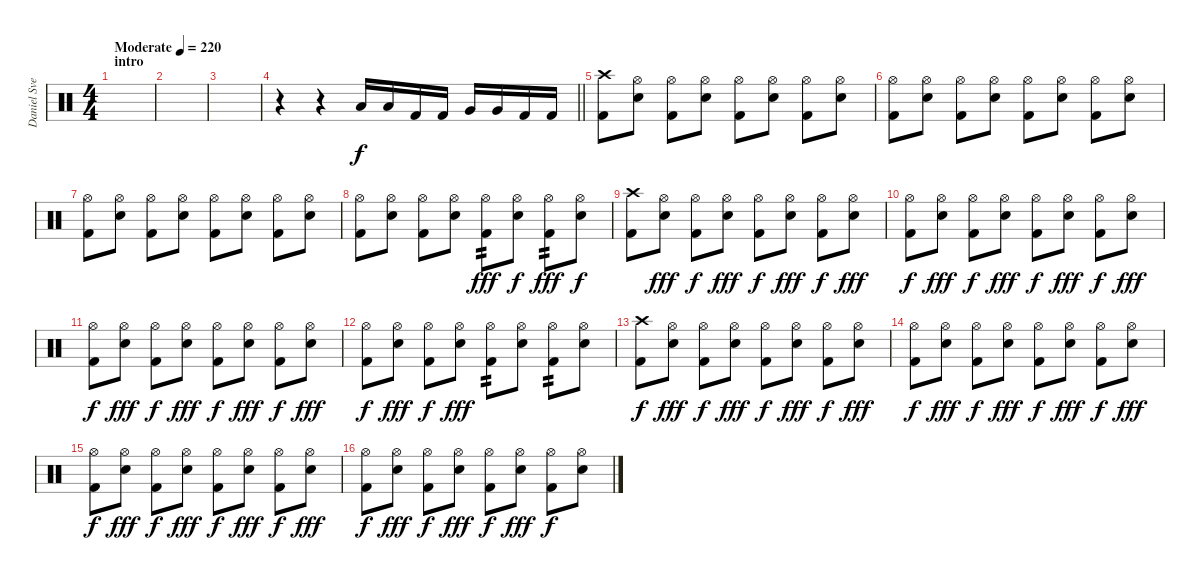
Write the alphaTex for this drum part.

\track ("Daniel Svensson" "Daniel Sve") {instrument percussion}
\staff {score}
\articulation defaults
\ts (4 4)
\section ("" "intro")
\tempo (220 "Moderate")
\clef neutral
\ks c
|
|
|
\barLineRight lightlight
r.4 r.4 "Low Tom (hit)".16 "Low Tom (hit)".16 "Kick (hit) 2".16 "Kick (hit) 2".16 "Very Low Tom (hit)".16 "Very Low Tom (hit)".16 "Kick (hit) 2".16 "Kick (hit) 2".16 |
\section ("" "")
("Crash high (hit)" "Kick (hit) 2").8 ("Hi-Hat (open)" "Electric Snare (hit)").8 ("Hi-Hat (open)" "Kick (hit) 2").8 ("Hi-Hat (open)" "Electric Snare (hit)").8 ("Hi-Hat (open)" "Kick (hit) 2").8 ("Hi-Hat (open)" "Electric Snare (hit)").8 ("Hi-Hat (open)" "Kick (hit) 2").8 ("Hi-Hat (open)" "Electric Snare (hit)").8 |
("Hi-Hat (open)" "Kick (hit) 2").8 ("Hi-Hat (open)" "Electric Snare (hit)").8 ("Hi-Hat (open)" "Kick (hit) 2").8 ("Hi-Hat (open)" "Electric Snare (hit)").8 ("Hi-Hat (open)" "Kick (hit) 2").8 ("Hi-Hat (open)" "Electric Snare (hit)").8 ("Hi-Hat (open)" "Kick (hit) 2").8 ("Hi-Hat (open)" "Electric Snare (hit)").8 |
("Hi-Hat (open)" "Kick (hit) 2").8 ("Hi-Hat (open)" "Electric Snare (hit)").8 ("Hi-Hat (open)" "Kick (hit) 2").8 ("Hi-Hat (open)" "Electric Snare (hit)").8 ("Hi-Hat (open)" "Kick (hit) 2").8 ("Hi-Hat (open)" "Electric Snare (hit)").8 ("Hi-Hat (open)" "Kick (hit) 2").8 ("Hi-Hat (open)" "Electric Snare (hit)").8 |
("Hi-Hat (open)" "Kick (hit) 2").8 ("Hi-Hat (open)" "Electric Snare (hit)").8 ("Hi-Hat (open)" "Kick (hit) 2").8 ("Hi-Hat (open)" "Electric Snare (hit)").8 ("Hi-Hat (open)" "Kick (hit) 2").8{tp 2 dy fff} ("Hi-Hat (open)" "Electric Snare (hit)").8{dy f} ("Hi-Hat (open)" "Kick (hit) 2").8{tp 2 dy fff} ("Hi-Hat (open)" "Electric Snare (hit)").8{dy f} |
("Crash high (hit)" "Kick (hit) 2").8 ("Hi-Hat (open)" "Electric Snare (hit)").8{dy fff} ("Hi-Hat (open)" "Kick (hit) 2").8{dy f} ("Hi-Hat (open)" "Electric Snare (hit)").8{dy fff} ("Hi-Hat (open)" "Kick (hit) 2").8{dy f} ("Hi-Hat (open)" "Electric Snare (hit)").8{dy fff} ("Hi-Hat (open)" "Kick (hit) 2").8{dy f} ("Hi-Hat (open)" "Electric Snare (hit)").8{dy fff} |
("Hi-Hat (open)" "Kick (hit) 2").8{dy f} ("Hi-Hat (open)" "Electric Snare (hit)").8{dy fff} ("Hi-Hat (open)" "Kick (hit) 2").8{dy f} ("Hi-Hat (open)" "Electric Snare (hit)").8{dy fff} ("Hi-Hat (open)" "Kick (hit) 2").8{dy f} ("Hi-Hat (open)" "Electric Snare (hit)").8{dy fff} ("Hi-Hat (open)" "Kick (hit) 2").8{dy f} ("Hi-Hat (open)" "Electric Snare (hit)").8{dy fff} |
("Hi-Hat (open)" "Kick (hit) 2").8{dy f} ("Hi-Hat (open)" "Electric Snare (hit)").8{dy fff} ("Hi-Hat (open)" "Kick (hit) 2").8{dy f} ("Hi-Hat (open)" "Electric Snare (hit)").8{dy fff} ("Hi-Hat (open)" "Kick (hit) 2").8{dy f} ("Hi-Hat (open)" "Electric Snare (hit)").8{dy fff} ("Hi-Hat (open)" "Kick (hit) 2").8{dy f} ("Hi-Hat (open)" "Electric Snare (hit)").8{dy fff} |
("Hi-Hat (open)" "Kick (hit) 2").8{dy f} ("Hi-Hat (open)" "Electric Snare (hit)").8{dy fff} ("Hi-Hat (open)" "Kick (hit) 2").8{dy f} ("Hi-Hat (open)" "Electric Snare (hit)").8{dy fff} ("Hi-Hat (open)" "Kick (hit) 2").8{tp 2} ("Hi-Hat (open)" "Electric Snare (hit)").8 ("Hi-Hat (open)" "Kick (hit) 2").8{tp 2} ("Hi-Hat (open)" "Electric Snare (hit)").8 |
("Crash high (hit)" "Kick (hit) 2").8{dy f} ("Hi-Hat (open)" "Electric Snare (hit)").8{dy fff} ("Hi-Hat (open)" "Kick (hit) 2").8{dy f} ("Hi-Hat (open)" "Electric Snare (hit)").8{dy fff} ("Hi-Hat (open)" "Kick (hit) 2").8{dy f} ("Hi-Hat (open)" "Electric Snare (hit)").8{dy fff} ("Hi-Hat (open)" "Kick (hit) 2").8{dy f} ("Hi-Hat (open)" "Electric Snare (hit)").8{dy fff} |
("Hi-Hat (open)" "Kick (hit) 2").8{dy f} ("Hi-Hat (open)" "Electric Snare (hit)").8{dy fff} ("Hi-Hat (open)" "Kick (hit) 2").8{dy f} ("Hi-Hat (open)" "Electric Snare (hit)").8{dy fff} ("Hi-Hat (open)" "Kick (hit) 2").8{dy f} ("Hi-Hat (open)" "Electric Snare (hit)").8{dy fff} ("Hi-Hat (open)" "Kick (hit) 2").8{dy f} ("Hi-Hat (open)" "Electric Snare (hit)").8{dy fff} |
("Hi-Hat (open)" "Kick (hit) 2").8{dy f} ("Hi-Hat (open)" "Electric Snare (hit)").8{dy fff} ("Hi-Hat (open)" "Kick (hit) 2").8{dy f} ("Hi-Hat (open)" "Electric Snare (hit)").8{dy fff} ("Hi-Hat (open)" "Kick (hit) 2").8{dy f} ("Hi-Hat (open)" "Electric Snare (hit)").8{dy fff} ("Hi-Hat (open)" "Kick (hit) 2").8{dy f} ("Hi-Hat (open)" "Electric Snare (hit)").8{dy fff} |
("Hi-Hat (open)" "Kick (hit) 2").8{dy f} ("Hi-Hat (open)" "Electric Snare (hit)").8{dy fff} ("Hi-Hat (open)" "Kick (hit) 2").8{dy f} ("Hi-Hat (open)" "Electric Snare (hit)").8{dy fff} ("Hi-Hat (open)" "Kick (hit) 2").8{dy f} ("Hi-Hat (open)" "Electric Snare (hit)").8{dy fff} ("Hi-Hat (open)" "Kick (hit) 2").8{dy f} ("Hi-Hat (open)" "Electric Snare (hit)").8
